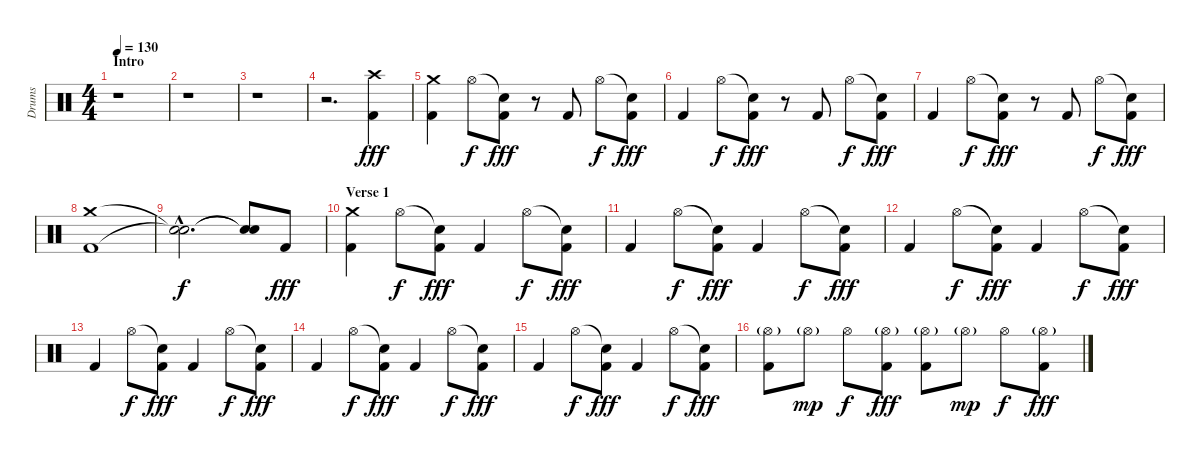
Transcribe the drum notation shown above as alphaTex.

\track ("Drums" "Drums") {instrument percussion}
\staff {score}
\articulation defaults
\ts (4 4)
\section ("" "Intro")
\tempo 130
\clef neutral
\ks c
r.1{dy fff} |
r.1 |
r.1 |
r.2{d} ("Crash high (hit)" "Kick (hit) 2").4 |
("Crash medium (hit)" "Kick (hit) 2").4 "Hi-Hat (open)".8{dy f} ("Snare (hit)"{t} "Kick (hit) 2").8{dy fff} r.8 "Kick (hit) 2".8 "Hi-Hat (open)".8{dy f} ("Snare (hit)"{t} "Kick (hit) 2").8{dy fff} |
"Kick (hit) 2".4 "Hi-Hat (open)".8{dy f} ("Snare (hit)"{t} "Kick (hit) 2").8{dy fff} r.8 "Kick (hit) 2".8 "Hi-Hat (open)".8{dy f} ("Snare (hit)"{t} "Kick (hit) 2").8{dy fff} |
"Kick (hit) 2".4 "Hi-Hat (open)".8{dy f} ("Snare (hit)"{t} "Kick (hit) 2").8{dy fff} r.8 "Kick (hit) 2".8 "Hi-Hat (open)".8{dy f} ("Snare (hit)"{t} "Kick (hit) 2").8{dy fff} |
("Crash medium (hit)" "Kick (hit) 2").1 |
("Snare (hit)"{hac t} "Snare (hit)"{hac t}).2{d dy f} ("Snare (hit)"{t} "Snare (hit)"{t}).8 "Kick (hit) 2".8{dy fff} |
\section ("" "Verse 1")
("Crash medium (hit)" "Kick (hit) 2").4 "Hi-Hat (open)".8{dy f} ("Snare (hit)"{t} "Kick (hit) 2").8{dy fff} "Kick (hit) 2".4 "Hi-Hat (open)".8{dy f} ("Snare (hit)"{t} "Kick (hit) 2").8{dy fff} |
"Kick (hit) 2".4 "Hi-Hat (open)".8{dy f} ("Snare (hit)"{t} "Kick (hit) 2").8{dy fff} "Kick (hit) 2".4 "Hi-Hat (open)".8{dy f} ("Snare (hit)"{t} "Kick (hit) 2").8{dy fff} |
"Kick (hit) 2".4 "Hi-Hat (open)".8{dy f} ("Snare (hit)"{t} "Kick (hit) 2").8{dy fff} "Kick (hit) 2".4 "Hi-Hat (open)".8{dy f} ("Snare (hit)"{t} "Kick (hit) 2").8{dy fff} |
"Kick (hit) 2".4 "Hi-Hat (open)".8{dy f} ("Snare (hit)"{t} "Kick (hit) 2").8{dy fff} "Kick (hit) 2".4 "Hi-Hat (open)".8{dy f} ("Snare (hit)"{t} "Kick (hit) 2").8{dy fff} |
"Kick (hit) 2".4 "Hi-Hat (open)".8{dy f} ("Snare (hit)"{t} "Kick (hit) 2").8{dy fff} "Kick (hit) 2".4 "Hi-Hat (open)".8{dy f} ("Snare (hit)"{t} "Kick (hit) 2").8{dy fff} |
"Kick (hit) 2".4 "Hi-Hat (open)".8{dy f} ("Snare (hit)"{t} "Kick (hit) 2").8{dy fff} "Kick (hit) 2".4 "Hi-Hat (open)".8{dy f} ("Snare (hit)"{t} "Kick (hit) 2").8{dy fff} |
("Hi-Hat (open)"{g} "Kick (hit) 2").8 "Hi-Hat (open)"{g}.8{dy mp} "Hi-Hat (open)".8{dy f} ("Hi-Hat (open)"{g} "Kick (hit) 2").8{dy fff} ("Hi-Hat (open)"{g} "Kick (hit) 2").8 "Hi-Hat (open)"{g}.8{dy mp} "Hi-Hat (open)".8{dy f} ("Hi-Hat (open)"{g} "Kick (hit) 2").8{dy fff}
